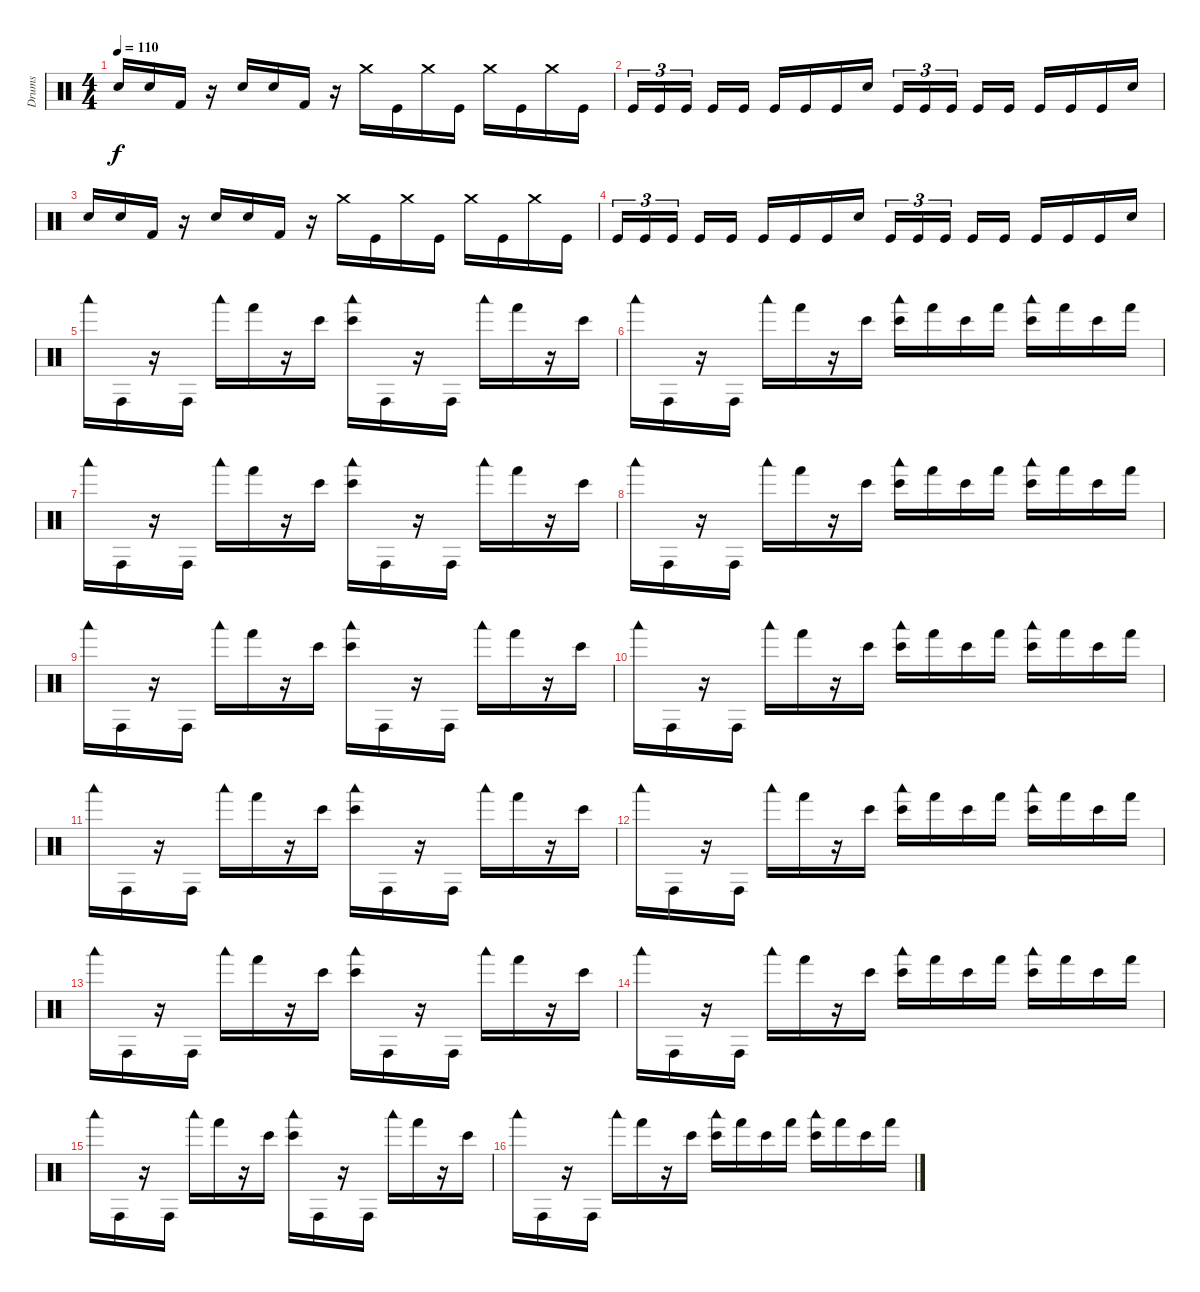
\track ("Drums" "Drums") {instrument percussion}
\staff {score}
\articulation defaults
\ts (4 4)
\tempo 110
\clef neutral
\ks c "Snare (hit) 2".16{dy f} "Snare (hit) 2".16 "Kick (hit) 2".16
r.16 "Snare (hit) 2".16 "Snare (hit) 2".16 "Kick (hit) 2".16 r.16 "Crash medium (hit)".16 "Kick (hit)".16 "Crash medium (hit)".16 "Kick (hit)".16 "Crash medium (hit)".16 "Kick (hit)".16 "Crash medium (hit)".16 "Kick (hit)".16 |
"Kick (hit)".16{tu (3 2)} "Kick (hit)".16{tu (3 2)} "Kick (hit)".16{tu (3 2) beam splitsecondary} "Kick (hit)".16 "Kick (hit)".16 "Kick (hit)".16 "Kick (hit)".16 "Kick (hit)".16 "Snare (hit) 2".16 "Kick (hit)".16{tu (3 2)} "Kick (hit)".16{tu (3 2)} "Kick (hit)".16{tu (3 2) beam splitsecondary} "Kick (hit)".16 "Kick (hit)".16 "Kick (hit)".16 "Kick (hit)".16 "Kick (hit)".16 "Snare (hit) 2".16 |
"Snare (hit) 2".16 "Snare (hit) 2".16 "Kick (hit) 2".16 r.16 "Snare (hit) 2".16 "Snare (hit) 2".16 "Kick (hit) 2".16 r.16 "Crash medium (hit)".16 "Kick (hit)".16 "Crash medium (hit)".16 "Kick (hit)".16 "Crash medium (hit)".16 "Kick (hit)".16 "Crash medium (hit)".16 "Kick (hit)".16 |
"Kick (hit)".16{tu (3 2)} "Kick (hit)".16{tu (3 2)} "Kick (hit)".16{tu (3 2) beam splitsecondary} "Kick (hit)".16 "Kick (hit)".16 "Kick (hit)".16 "Kick (hit)".16 "Kick (hit)".16 "Snare (hit) 2".16 "Kick (hit)".16{tu (3 2)} "Kick (hit)".16{tu (3 2)} "Kick (hit)".16{tu (3 2) beam splitsecondary} "Kick (hit)".16 "Kick (hit)".16 "Kick (hit)".16 "Kick (hit)".16 "Kick (hit)".16 "Snare (hit) 2".16 |
"Woodblock low (hit)".16 "Conga high (hit)".16 r.16 "Conga high (hit)".16 "Woodblock low (hit)".16 "Hand (hit)".16 r.16 "Bongo High (hit)".16 ("Woodblock low (hit)" "Bongo High (hit)").16 "Conga high (hit)".16 r.16 "Conga high (hit)".16 "Woodblock low (hit)".16 "Hand (hit)".16 r.16 "Bongo High (hit)".16 |
"Woodblock low (hit)".16 "Conga high (hit)".16 r.16 "Conga high (hit)".16 "Woodblock low (hit)".16 "Hand (hit)".16 r.16 "Bongo High (hit)".16 ("Woodblock low (hit)" "Bongo High (hit)").16 "Hand (hit)".16 "Bongo High (hit)".16 "Hand (hit)".16 ("Woodblock low (hit)" "Bongo High (hit)").16 "Hand (hit)".16 "Bongo High (hit)".16 "Hand (hit)".16 |
"Woodblock low (hit)".16 "Conga high (hit)".16 r.16 "Conga high (hit)".16 "Woodblock low (hit)".16 "Hand (hit)".16 r.16 "Bongo High (hit)".16 ("Woodblock low (hit)" "Bongo High (hit)").16 "Conga high (hit)".16 r.16 "Conga high (hit)".16 "Woodblock low (hit)".16 "Hand (hit)".16 r.16 "Bongo High (hit)".16 |
"Woodblock low (hit)".16 "Conga high (hit)".16 r.16 "Conga high (hit)".16 "Woodblock low (hit)".16 "Hand (hit)".16 r.16 "Bongo High (hit)".16 ("Woodblock low (hit)" "Bongo High (hit)").16 "Hand (hit)".16 "Bongo High (hit)".16 "Hand (hit)".16 ("Woodblock low (hit)" "Bongo High (hit)").16 "Hand (hit)".16 "Bongo High (hit)".16 "Hand (hit)".16 |
"Woodblock low (hit)".16 "Conga high (hit)".16 r.16 "Conga high (hit)".16 "Woodblock low (hit)".16 "Hand (hit)".16 r.16 "Bongo High (hit)".16 ("Woodblock low (hit)" "Bongo High (hit)").16 "Conga high (hit)".16 r.16 "Conga high (hit)".16 "Woodblock low (hit)".16 "Hand (hit)".16 r.16 "Bongo High (hit)".16 |
"Woodblock low (hit)".16 "Conga high (hit)".16 r.16 "Conga high (hit)".16 "Woodblock low (hit)".16 "Hand (hit)".16 r.16 "Bongo High (hit)".16 ("Woodblock low (hit)" "Bongo High (hit)").16 "Hand (hit)".16 "Bongo High (hit)".16 "Hand (hit)".16 ("Woodblock low (hit)" "Bongo High (hit)").16 "Hand (hit)".16 "Bongo High (hit)".16 "Hand (hit)".16 |
"Woodblock low (hit)".16 "Conga high (hit)".16 r.16 "Conga high (hit)".16 "Woodblock low (hit)".16 "Hand (hit)".16 r.16 "Bongo High (hit)".16 ("Woodblock low (hit)" "Bongo High (hit)").16 "Conga high (hit)".16 r.16 "Conga high (hit)".16 "Woodblock low (hit)".16 "Hand (hit)".16 r.16 "Bongo High (hit)".16 |
"Woodblock low (hit)".16 "Conga high (hit)".16 r.16 "Conga high (hit)".16 "Woodblock low (hit)".16 "Hand (hit)".16 r.16 "Bongo High (hit)".16 ("Woodblock low (hit)" "Bongo High (hit)").16 "Hand (hit)".16 "Bongo High (hit)".16 "Hand (hit)".16 ("Woodblock low (hit)" "Bongo High (hit)").16 "Hand (hit)".16 "Bongo High (hit)".16 "Hand (hit)".16 |
"Woodblock low (hit)".16 "Conga high (hit)".16 r.16 "Conga high (hit)".16 "Woodblock low (hit)".16 "Hand (hit)".16 r.16 "Bongo High (hit)".16 ("Woodblock low (hit)" "Bongo High (hit)").16 "Conga high (hit)".16 r.16 "Conga high (hit)".16 "Woodblock low (hit)".16 "Hand (hit)".16 r.16 "Bongo High (hit)".16 |
"Woodblock low (hit)".16 "Conga high (hit)".16 r.16 "Conga high (hit)".16 "Woodblock low (hit)".16 "Hand (hit)".16 r.16 "Bongo High (hit)".16 ("Woodblock low (hit)" "Bongo High (hit)").16 "Hand (hit)".16 "Bongo High (hit)".16 "Hand (hit)".16 ("Woodblock low (hit)" "Bongo High (hit)").16 "Hand (hit)".16 "Bongo High (hit)".16 "Hand (hit)".16 |
"Woodblock low (hit)".16 "Conga high (hit)".16 r.16 "Conga high (hit)".16 "Woodblock low (hit)".16 "Hand (hit)".16 r.16 "Bongo High (hit)".16 ("Woodblock low (hit)" "Bongo High (hit)").16 "Conga high (hit)".16 r.16 "Conga high (hit)".16 "Woodblock low (hit)".16 "Hand (hit)".16 r.16 "Bongo High (hit)".16 |
"Woodblock low (hit)".16 "Conga high (hit)".16 r.16 "Conga high (hit)".16 "Woodblock low (hit)".16 "Hand (hit)".16 r.16 "Bongo High (hit)".16 ("Woodblock low (hit)" "Bongo High (hit)").16 "Hand (hit)".16 "Bongo High (hit)".16 "Hand (hit)".16 ("Woodblock low (hit)" "Bongo High (hit)").16 "Hand (hit)".16 "Bongo High (hit)".16 "Hand (hit)".16
